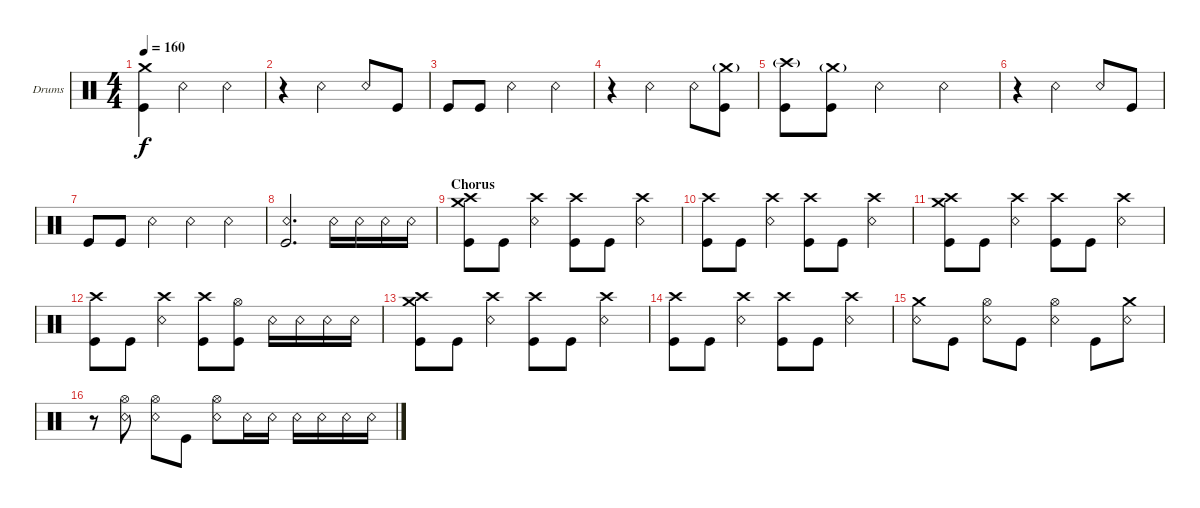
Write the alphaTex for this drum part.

\bracketExtendMode groupsimilarinstruments
\firstSystemTrackNameOrientation horizontal
\otherSystemsTrackNameOrientation horizontal
\track ("Drumkit" "Drums") {instrument percussion}
\staff {score}
\articulation defaults
\ts (4 4)
\tempo 160
\clef neutral
\scale
0.333333
\ks c
("Crash medium (hit)" "Kick (hit)").4{dy f} "Snare (rim shot)".2 "Snare (rim shot)".4 |
\scale
0.333333 r.4 "Snare (rim shot)".2 "Snare (rim shot)".8 "Kick (hit)".8 |
\scale
0.333333 "Kick (hit)".8 "Kick (hit)".8 "Snare (rim shot)".2 "Snare (rim shot)".4 |
\scale
0.333333 r.4 "Snare (rim shot)".2 "Snare (rim shot)".8 ("Crash medium (hit)"{g} "Kick (hit)").8 |
\scale
0.333333 ("Crash high (hit)"{g} "Kick (hit)").8 ("Crash medium (hit)"{g} "Kick (hit)").8 "Snare (rim shot)".2 "Snare (rim shot)".4 |
\scale
0.333333 r.4 "Snare (rim shot)".2 "Snare (rim shot)".8 "Kick (hit)".8 |
\scale
0.333333 "Kick (hit)".8 "Kick (hit)".8 "Snare (rim shot)".4 "Snare (rim shot)".4 "Snare (rim shot)".4 |
\scale
0.333333 ("Snare (rim shot)" "Kick (hit)").2{d} "Snare (rim shot)".16 "Snare (rim shot)".16 "Snare (rim shot)".16 "Snare (rim shot)".16 |
\section ("" "Chorus")
\scale
0.333333 ("Crash medium (hit)" "Crash high (hit)" "Kick (hit)").8 "Kick (hit)".8 ("Crash high (hit)" "Snare (rim shot)").4 ("Crash high (hit)" "Kick (hit)").8 "Kick (hit)".8 ("Crash high (hit)" "Snare (rim shot)").4 |
\scale
0.333333 ("Crash high (hit)" "Kick (hit)").8 "Kick (hit)".8 ("Crash high (hit)" "Snare (rim shot)").4 ("Crash high (hit)" "Kick (hit)").8 "Kick (hit)".8 ("Crash high (hit)" "Snare (rim shot)").4 |
\scale
0.333333 ("Crash medium (hit)" "Crash high (hit)" "Kick (hit)").8 "Kick (hit)".8 ("Crash high (hit)" "Snare (rim shot)").4 ("Crash high (hit)" "Kick (hit)").8 "Kick (hit)".8 ("Crash high (hit)" "Snare (rim shot)").4 |
\scale
0.333333 ("Crash high (hit)" "Kick (hit)").8 "Kick (hit)".8 ("Crash high (hit)" "Snare (rim shot)").4 ("Crash high (hit)" "Kick (hit)").8 ("Hi-Hat (open)" "Kick (hit)").8 "Snare (rim shot)".16 "Snare (rim shot)".16 "Snare (rim shot)".16 "Snare (rim shot)".16 |
\scale
0.333333 ("Crash medium (hit)" "Crash high (hit)" "Kick (hit)").8 "Kick (hit)".8 ("Crash high (hit)" "Snare (rim shot)").4 ("Crash high (hit)" "Kick (hit)").8 "Kick (hit)".8 ("Crash high (hit)" "Snare (rim shot)").4 |
\scale
0.333333 ("Crash high (hit)" "Kick (hit)").8 "Kick (hit)".8 ("Crash high (hit)" "Snare (rim shot)").4 ("Crash high (hit)" "Kick (hit)").8 "Kick (hit)".8 ("Crash high (hit)" "Snare (rim shot)").4 |
\scale
0.333333 ("Crash medium (hit)" "Snare (rim shot)").8 "Kick (hit)".8 ("Hi-Hat (open)" "Snare (rim shot)").8 "Kick (hit)".8 ("Hi-Hat (open)" "Snare (rim shot)").4 "Kick (hit)".8 ("Crash medium (hit)" "Snare (rim shot)").8 |
\scale
0.333333 r.8 ("Hi-Hat (open)" "Snare (rim shot)").8 ("Hi-Hat (open)" "Snare (rim shot)").8 "Kick (hit)".8 ("Hi-Hat (open)" "Snare (rim shot)").8 "Snare (rim shot)".16 "Snare (rim shot)".16 "Snare (rim shot)".16 "Snare (rim shot)".16 "Snare (rim shot)".16 "Snare (rim shot)".16
